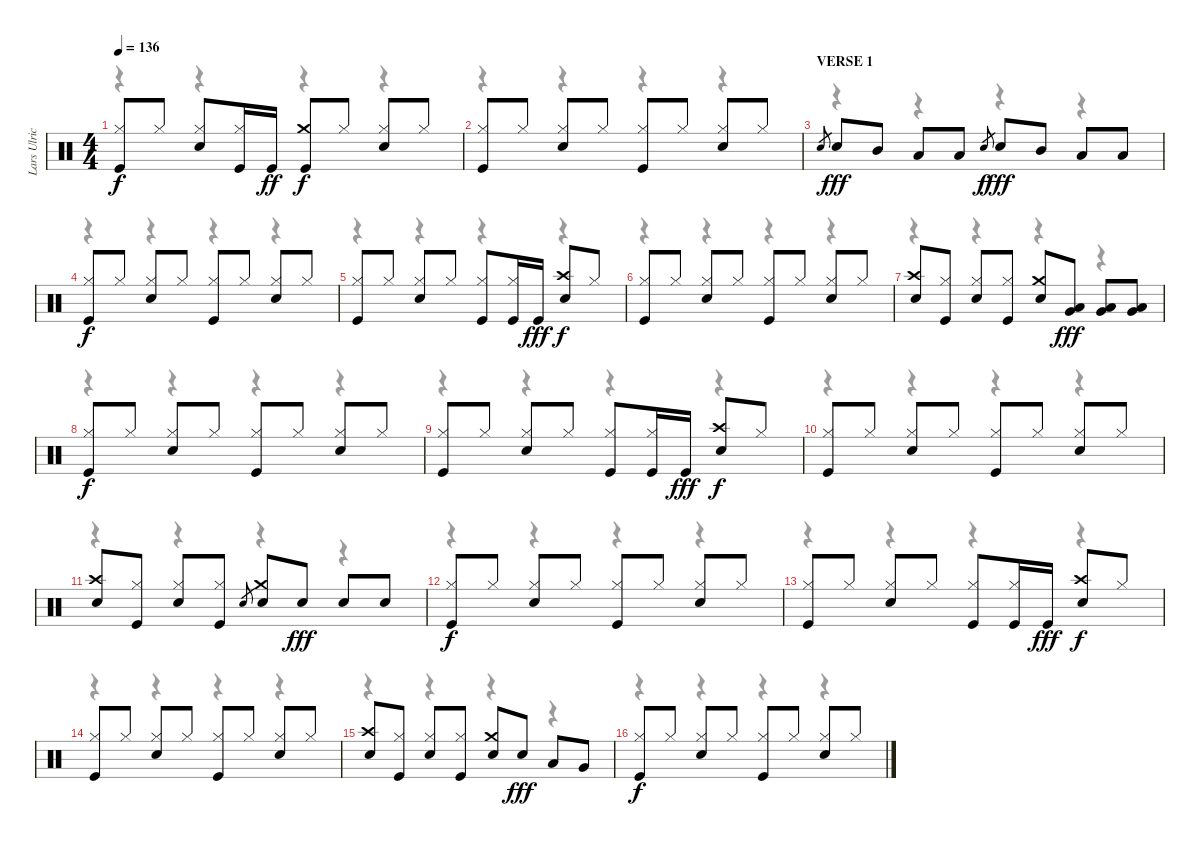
\track ("Lars Ulrich" "Lars Ulric") {instrument percussion}
\staff {score}
\articulation defaults
\voice
\ts (4 4)
\tempo 136
\clef neutral
\ks c
("Hi-Hat (closed)" "Kick (hit)").8{dy f} "Hi-Hat (closed)".8 ("Hi-Hat (closed)" "Snare (hit) 2").8 ("Hi-Hat (closed)" "Kick (hit)").16 "Kick (hit)".16{dy ff} ("Crash medium (hit)" "Kick (hit)").8{dy f} "Hi-Hat (closed)".8 ("Hi-Hat (closed)" "Snare (hit) 2").8 "Hi-Hat (closed)".8 |
("Hi-Hat (closed)" "Kick (hit)").8 "Hi-Hat (closed)".8 ("Hi-Hat (closed)" "Snare (hit) 2").8 "Hi-Hat (closed)".8 ("Hi-Hat (closed)" "Kick (hit)").8 "Hi-Hat (closed)".8 ("Hi-Hat (closed)" "Snare (hit) 2").8 "Hi-Hat (closed)".8 |
\section ("" "VERSE 1")
"Snare (hit)".8{gr} "Snare (hit) 2".8{dy fff} "Mid Tom (hit)".8 "Low Tom (hit)".8 "Low Floor Tom (hit)".8 "Snare (hit)".8{gr dy f} "Snare (hit) 2".8{dy fff} "Mid Tom (hit)".8 "Low Tom (hit)".8 "Low Floor Tom (hit)".8 |
("Hi-Hat (closed)" "Kick (hit)").8{dy f} "Hi-Hat (closed)".8 ("Hi-Hat (closed)" "Snare (hit) 2").8 "Hi-Hat (closed)".8 ("Hi-Hat (closed)" "Kick (hit)").8 "Hi-Hat (closed)".8 ("Hi-Hat (closed)" "Snare (hit) 2").8 "Hi-Hat (closed)".8 |
("Hi-Hat (closed)" "Kick (hit)").8 "Hi-Hat (closed)".8 ("Hi-Hat (closed)" "Snare (hit) 2").8 "Hi-Hat (closed)".8 ("Hi-Hat (closed)" "Kick (hit)").8 ("Hi-Hat (closed)" "Kick (hit)").16 "Kick (hit)".16{dy fff} ("Crash high (hit)" "Snare (hit) 2").8{dy f} "Hi-Hat (closed)".8 |
("Hi-Hat (closed)" "Kick (hit)").8 "Hi-Hat (closed)".8 ("Hi-Hat (closed)" "Snare (hit) 2").8 "Hi-Hat (closed)".8 ("Hi-Hat (closed)" "Kick (hit)").8 "Hi-Hat (closed)".8 ("Hi-Hat (closed)" "Snare (hit) 2").8 "Hi-Hat (closed)".8 |
("Crash high (hit)" "Snare (hit) 2").8 ("Hi-Hat (closed)" "Kick (hit)").8 ("Hi-Hat (closed)" "Snare (hit) 2").8 ("Hi-Hat (closed)" "Kick (hit)").8 ("Crash medium (hit)" "Snare (hit) 2").8 ("Low Tom (hit)" "Very Low Tom (hit)").8{dy fff} ("Low Tom (hit)" "Very Low Tom (hit)").8 ("Low Tom (hit)" "Very Low Tom (hit)").8 |
("Hi-Hat (closed)" "Kick (hit)").8{dy f} "Hi-Hat (closed)".8 ("Hi-Hat (closed)" "Snare (hit) 2").8 "Hi-Hat (closed)".8 ("Hi-Hat (closed)" "Kick (hit)").8 "Hi-Hat (closed)".8 ("Hi-Hat (closed)" "Snare (hit) 2").8 "Hi-Hat (closed)".8 |
("Hi-Hat (closed)" "Kick (hit)").8 "Hi-Hat (closed)".8 ("Hi-Hat (closed)" "Snare (hit) 2").8 "Hi-Hat (closed)".8 ("Hi-Hat (closed)" "Kick (hit)").8 ("Hi-Hat (closed)" "Kick (hit)").16 "Kick (hit)".16{dy fff} ("Crash high (hit)" "Snare (hit) 2").8{dy f} "Hi-Hat (closed)".8 |
("Hi-Hat (closed)" "Kick (hit)").8 "Hi-Hat (closed)".8 ("Hi-Hat (closed)" "Snare (hit) 2").8 "Hi-Hat (closed)".8 ("Hi-Hat (closed)" "Kick (hit)").8 "Hi-Hat (closed)".8 ("Hi-Hat (closed)" "Snare (hit) 2").8 "Hi-Hat (closed)".8 |
("Crash high (hit)" "Snare (hit) 2").8 ("Hi-Hat (closed)" "Kick (hit)").8 ("Hi-Hat (closed)" "Snare (hit) 2").8 ("Hi-Hat (closed)" "Kick (hit)").8 "Snare (hit)".8{gr} ("Crash medium (hit)" "Snare (hit) 2").8 "Snare (hit) 2".8{dy fff} "Snare (hit) 2".8 "Snare (hit) 2".8 |
("Hi-Hat (closed)" "Kick (hit)").8{dy f} "Hi-Hat (closed)".8 ("Hi-Hat (closed)" "Snare (hit) 2").8 "Hi-Hat (closed)".8 ("Hi-Hat (closed)" "Kick (hit)").8 "Hi-Hat (closed)".8 ("Hi-Hat (closed)" "Snare (hit) 2").8 "Hi-Hat (closed)".8 |
("Hi-Hat (closed)" "Kick (hit)").8 "Hi-Hat (closed)".8 ("Hi-Hat (closed)" "Snare (hit) 2").8 "Hi-Hat (closed)".8 ("Hi-Hat (closed)" "Kick (hit)").8 ("Hi-Hat (closed)" "Kick (hit)").16 "Kick (hit)".16{dy fff} ("Crash high (hit)" "Snare (hit) 2").8{dy f} "Hi-Hat (closed)".8 |
("Hi-Hat (closed)" "Kick (hit)").8 "Hi-Hat (closed)".8 ("Hi-Hat (closed)" "Snare (hit) 2").8 "Hi-Hat (closed)".8 ("Hi-Hat (closed)" "Kick (hit)").8 "Hi-Hat (closed)".8 ("Hi-Hat (closed)" "Snare (hit) 2").8 "Hi-Hat (closed)".8 |
("Crash high (hit)" "Snare (hit) 2").8 ("Hi-Hat (closed)" "Kick (hit)").8 ("Hi-Hat (closed)" "Snare (hit) 2").8 ("Hi-Hat (closed)" "Kick (hit)").8 ("Crash medium (hit)" "Snare (hit) 2").8 "Snare (hit) 2".8{dy fff} "Low Tom (hit)".8 "Very Low Tom (hit)".8 |
("Hi-Hat (closed)" "Kick (hit)").8{dy f} "Hi-Hat (closed)".8 ("Hi-Hat (closed)" "Snare (hit) 2").8 "Hi-Hat (closed)".8 ("Hi-Hat (closed)" "Kick (hit)").8 "Hi-Hat (closed)".8 ("Hi-Hat (closed)" "Snare (hit) 2").8 "Hi-Hat (closed)".8
\voice
\clef neutral
\ottava regular
\simile none
\ks c
r.4{dy f} r.4 r.4 r.4 |
r.4 r.4 r.4 r.4 |
r.4 r.4 r.4 r.4 |
r.4 r.4 r.4 r.4 |
r.4 r.4 r.4 r.4 |
r.4 r.4 r.4 r.4 |
r.4 r.4 r.4 r.4 |
r.4 r.4 r.4 r.4 |
r.4 r.4 r.4 r.4 |
r.4 r.4 r.4 r.4 |
r.4 r.4 r.4 r.4 |
r.4 r.4 r.4 r.4 |
r.4 r.4 r.4 r.4 |
r.4 r.4 r.4 r.4 |
r.4 r.4 r.4 r.4 |
r.4 r.4 r.4 r.4
